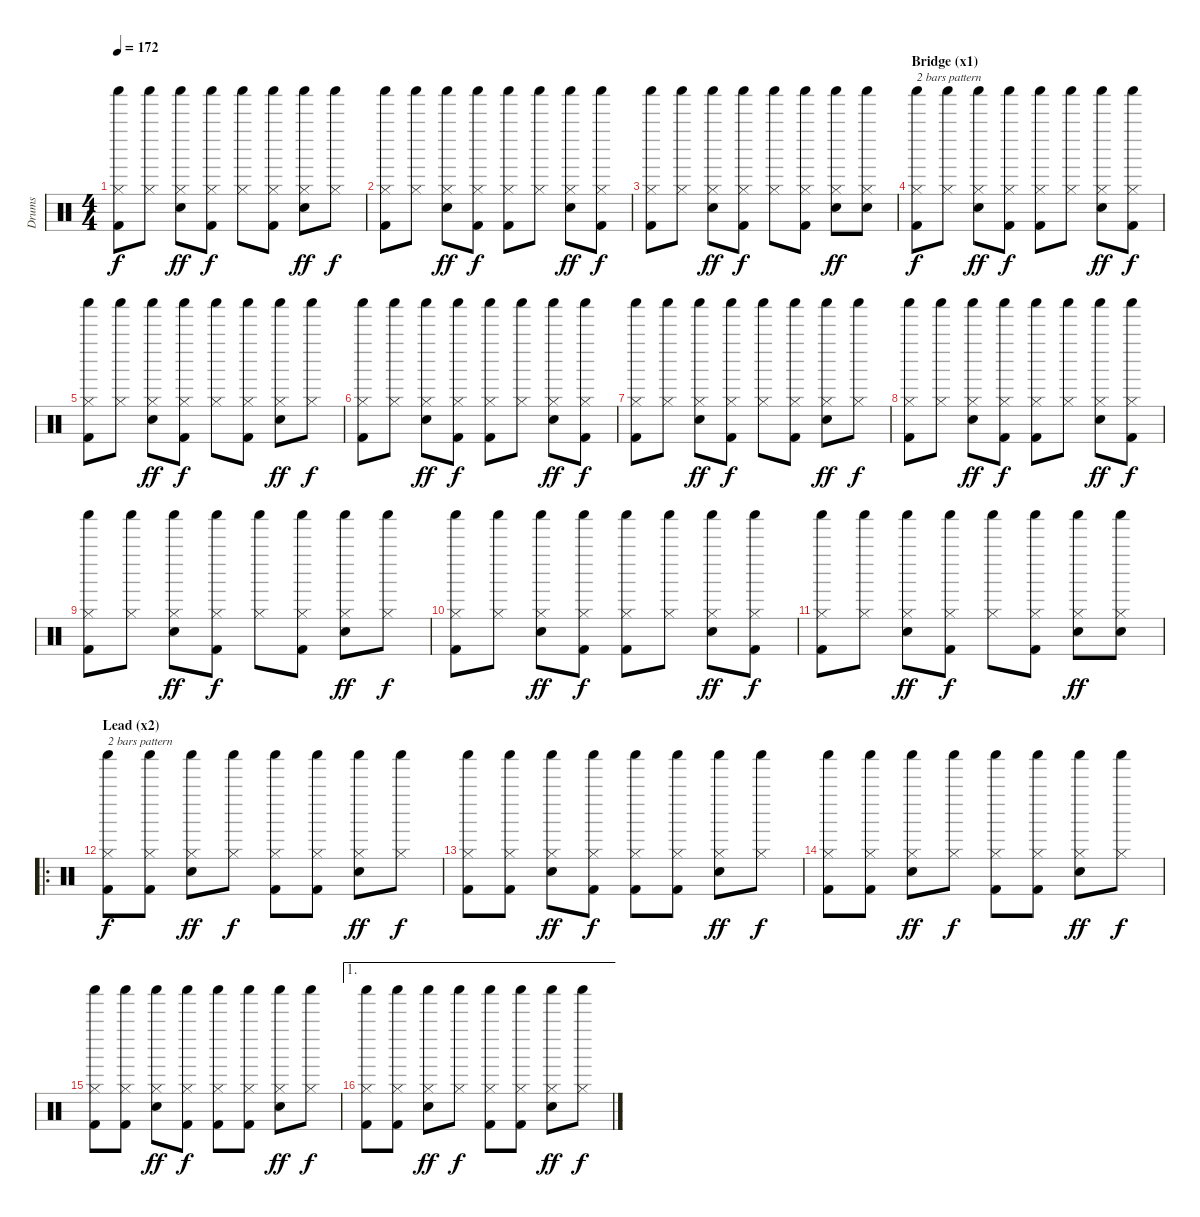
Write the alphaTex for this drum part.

\track ("Drums" "Drums") {instrument percussion}
\staff {score}
\articulation defaults
\ts (4 4)
\tempo 172
\clef neutral
\ks c
("Hi-Hat (closed)" "Shaker (hit)" "Kick (hit) 2").8{dy f} ("Hi-Hat (closed)" "Shaker (hit)").8 ("Hi-Hat (closed)" "Shaker (hit)" "Electric Snare (hit)").8{dy ff} ("Hi-Hat (closed)" "Shaker (hit)" "Kick (hit) 2").8{dy f} ("Hi-Hat (closed)" "Shaker (hit)").8 ("Hi-Hat (closed)" "Shaker (hit)" "Kick (hit) 2").8 ("Hi-Hat (closed)" "Shaker (hit)" "Electric Snare (hit)").8{dy ff} ("Hi-Hat (closed)" "Shaker (hit)").8{dy f} |
("Hi-Hat (closed)" "Shaker (hit)" "Kick (hit) 2").8 ("Hi-Hat (closed)" "Shaker (hit)").8 ("Hi-Hat (closed)" "Shaker (hit)" "Electric Snare (hit)").8{dy ff} ("Hi-Hat (closed)" "Shaker (hit)" "Kick (hit) 2").8{dy f} ("Hi-Hat (closed)" "Shaker (hit)" "Kick (hit) 2").8 ("Hi-Hat (closed)" "Shaker (hit)").8 ("Hi-Hat (closed)" "Shaker (hit)" "Electric Snare (hit)").8{dy ff} ("Hi-Hat (closed)" "Shaker (hit)" "Kick (hit) 2").8{dy f} |
("Hi-Hat (closed)" "Shaker (hit)" "Kick (hit) 2").8 ("Hi-Hat (closed)" "Shaker (hit)").8 ("Hi-Hat (closed)" "Shaker (hit)" "Electric Snare (hit)").8{dy ff} ("Hi-Hat (closed)" "Shaker (hit)" "Kick (hit) 2").8{dy f} ("Hi-Hat (closed)" "Shaker (hit)").8 ("Hi-Hat (closed)" "Shaker (hit)" "Kick (hit) 2").8 ("Hi-Hat (closed)" "Shaker (hit)" "Electric Snare (hit)").8{dy ff} ("Hi-Hat (closed)" "Shaker (hit)" "Electric Snare (hit)").8 |
\section ("" "Bridge (x1)")
("Hi-Hat (closed)" "Shaker (hit)" "Kick (hit) 2").8{txt "2 bars pattern" dy f} ("Hi-Hat (closed)" "Shaker (hit)").8 ("Hi-Hat (closed)" "Shaker (hit)" "Electric Snare (hit)").8{dy ff} ("Hi-Hat (closed)" "Shaker (hit)" "Kick (hit) 2").8{dy f} ("Hi-Hat (closed)" "Shaker (hit)" "Kick (hit) 2").8 ("Hi-Hat (closed)" "Shaker (hit)").8 ("Hi-Hat (closed)" "Shaker (hit)" "Electric Snare (hit)").8{dy ff} ("Hi-Hat (closed)" "Shaker (hit)" "Kick (hit) 2").8{dy f} |
("Hi-Hat (closed)" "Shaker (hit)" "Kick (hit) 2").8 ("Hi-Hat (closed)" "Shaker (hit)").8 ("Hi-Hat (closed)" "Shaker (hit)" "Electric Snare (hit)").8{dy ff} ("Hi-Hat (closed)" "Shaker (hit)" "Kick (hit) 2").8{dy f} ("Hi-Hat (closed)" "Shaker (hit)").8 ("Hi-Hat (closed)" "Shaker (hit)" "Kick (hit) 2").8 ("Hi-Hat (closed)" "Shaker (hit)" "Electric Snare (hit)").8{dy ff} ("Hi-Hat (closed)" "Shaker (hit)").8{dy f} |
("Hi-Hat (closed)" "Shaker (hit)" "Kick (hit) 2").8 ("Hi-Hat (closed)" "Shaker (hit)").8 ("Hi-Hat (closed)" "Shaker (hit)" "Electric Snare (hit)").8{dy ff} ("Hi-Hat (closed)" "Shaker (hit)" "Kick (hit) 2").8{dy f} ("Hi-Hat (closed)" "Shaker (hit)" "Kick (hit) 2").8 ("Hi-Hat (closed)" "Shaker (hit)").8 ("Hi-Hat (closed)" "Shaker (hit)" "Electric Snare (hit)").8{dy ff} ("Hi-Hat (closed)" "Shaker (hit)" "Kick (hit) 2").8{dy f} |
("Hi-Hat (closed)" "Shaker (hit)" "Kick (hit) 2").8 ("Hi-Hat (closed)" "Shaker (hit)").8 ("Hi-Hat (closed)" "Shaker (hit)" "Electric Snare (hit)").8{dy ff} ("Hi-Hat (closed)" "Shaker (hit)" "Kick (hit) 2").8{dy f} ("Hi-Hat (closed)" "Shaker (hit)").8 ("Hi-Hat (closed)" "Shaker (hit)" "Kick (hit) 2").8 ("Hi-Hat (closed)" "Shaker (hit)" "Electric Snare (hit)").8{dy ff} ("Hi-Hat (closed)" "Shaker (hit)").8{dy f} |
("Hi-Hat (closed)" "Shaker (hit)" "Kick (hit) 2").8 ("Hi-Hat (closed)" "Shaker (hit)").8 ("Hi-Hat (closed)" "Shaker (hit)" "Electric Snare (hit)").8{dy ff} ("Hi-Hat (closed)" "Shaker (hit)" "Kick (hit) 2").8{dy f} ("Hi-Hat (closed)" "Shaker (hit)" "Kick (hit) 2").8 ("Hi-Hat (closed)" "Shaker (hit)").8 ("Hi-Hat (closed)" "Shaker (hit)" "Electric Snare (hit)").8{dy ff} ("Hi-Hat (closed)" "Shaker (hit)" "Kick (hit) 2").8{dy f} |
("Hi-Hat (closed)" "Shaker (hit)" "Kick (hit) 2").8 ("Hi-Hat (closed)" "Shaker (hit)").8 ("Hi-Hat (closed)" "Shaker (hit)" "Electric Snare (hit)").8{dy ff} ("Hi-Hat (closed)" "Shaker (hit)" "Kick (hit) 2").8{dy f} ("Hi-Hat (closed)" "Shaker (hit)").8 ("Hi-Hat (closed)" "Shaker (hit)" "Kick (hit) 2").8 ("Hi-Hat (closed)" "Shaker (hit)" "Electric Snare (hit)").8{dy ff} ("Hi-Hat (closed)" "Shaker (hit)").8{dy f} |
("Hi-Hat (closed)" "Shaker (hit)" "Kick (hit) 2").8 ("Hi-Hat (closed)" "Shaker (hit)").8 ("Hi-Hat (closed)" "Shaker (hit)" "Electric Snare (hit)").8{dy ff} ("Hi-Hat (closed)" "Shaker (hit)" "Kick (hit) 2").8{dy f} ("Hi-Hat (closed)" "Shaker (hit)" "Kick (hit) 2").8 ("Hi-Hat (closed)" "Shaker (hit)").8 ("Hi-Hat (closed)" "Shaker (hit)" "Electric Snare (hit)").8{dy ff} ("Hi-Hat (closed)" "Shaker (hit)" "Kick (hit) 2").8{dy f} |
("Hi-Hat (closed)" "Shaker (hit)" "Kick (hit) 2").8 ("Hi-Hat (closed)" "Shaker (hit)").8 ("Hi-Hat (closed)" "Shaker (hit)" "Electric Snare (hit)").8{dy ff} ("Hi-Hat (closed)" "Shaker (hit)" "Kick (hit) 2").8{dy f} ("Hi-Hat (closed)" "Shaker (hit)").8 ("Hi-Hat (closed)" "Shaker (hit)" "Kick (hit) 2").8 ("Hi-Hat (closed)" "Shaker (hit)" "Electric Snare (hit)").8{dy ff} ("Hi-Hat (closed)" "Shaker (hit)" "Electric Snare (hit)").8 |
\ro
\section ("" "Lead (x2)")
("Hi-Hat (closed)" "Shaker (hit)" "Kick (hit) 2").8{txt "2 bars pattern" dy f} ("Hi-Hat (closed)" "Shaker (hit)" "Kick (hit) 2").8 ("Hi-Hat (closed)" "Shaker (hit)" "Electric Snare (hit)").8{dy ff} ("Hi-Hat (closed)" "Shaker (hit)").8{dy f} ("Hi-Hat (closed)" "Shaker (hit)" "Kick (hit) 2").8 ("Hi-Hat (closed)" "Shaker (hit)" "Kick (hit) 2").8 ("Hi-Hat (closed)" "Shaker (hit)" "Electric Snare (hit)").8{dy ff} ("Hi-Hat (closed)" "Shaker (hit)").8{dy f} |
("Hi-Hat (closed)" "Shaker (hit)" "Kick (hit) 2").8 ("Hi-Hat (closed)" "Shaker (hit)" "Kick (hit) 2").8 ("Hi-Hat (closed)" "Shaker (hit)" "Electric Snare (hit)").8{dy ff} ("Hi-Hat (closed)" "Shaker (hit)" "Kick (hit) 2").8{dy f} ("Hi-Hat (closed)" "Shaker (hit)" "Kick (hit) 2").8 ("Hi-Hat (closed)" "Shaker (hit)" "Kick (hit) 2").8 ("Hi-Hat (closed)" "Shaker (hit)" "Electric Snare (hit)").8{dy ff} ("Hi-Hat (closed)" "Shaker (hit)").8{dy f} |
("Hi-Hat (closed)" "Shaker (hit)" "Kick (hit) 2").8 ("Hi-Hat (closed)" "Shaker (hit)" "Kick (hit) 2").8 ("Hi-Hat (closed)" "Shaker (hit)" "Electric Snare (hit)").8{dy ff} ("Hi-Hat (closed)" "Shaker (hit)").8{dy f} ("Hi-Hat (closed)" "Shaker (hit)" "Kick (hit) 2").8 ("Hi-Hat (closed)" "Shaker (hit)" "Kick (hit) 2").8 ("Hi-Hat (closed)" "Shaker (hit)" "Electric Snare (hit)").8{dy ff} ("Hi-Hat (closed)" "Shaker (hit)").8{dy f} |
("Hi-Hat (closed)" "Shaker (hit)" "Kick (hit) 2").8 ("Hi-Hat (closed)" "Shaker (hit)" "Kick (hit) 2").8 ("Hi-Hat (closed)" "Shaker (hit)" "Electric Snare (hit)").8{dy ff} ("Hi-Hat (closed)" "Shaker (hit)" "Kick (hit) 2").8{dy f} ("Hi-Hat (closed)" "Shaker (hit)" "Kick (hit) 2").8 ("Hi-Hat (closed)" "Shaker (hit)" "Kick (hit) 2").8 ("Hi-Hat (closed)" "Shaker (hit)" "Electric Snare (hit)").8{dy ff} ("Hi-Hat (closed)" "Shaker (hit)").8{dy f} |
\ae 1
("Hi-Hat (closed)" "Shaker (hit)" "Kick (hit) 2").8 ("Hi-Hat (closed)" "Shaker (hit)" "Kick (hit) 2").8 ("Hi-Hat (closed)" "Shaker (hit)" "Electric Snare (hit)").8{dy ff} ("Hi-Hat (closed)" "Shaker (hit)").8{dy f} ("Hi-Hat (closed)" "Shaker (hit)" "Kick (hit) 2").8 ("Hi-Hat (closed)" "Shaker (hit)" "Kick (hit) 2").8 ("Hi-Hat (closed)" "Shaker (hit)" "Electric Snare (hit)").8{dy ff} ("Hi-Hat (closed)" "Shaker (hit)").8{dy f}
